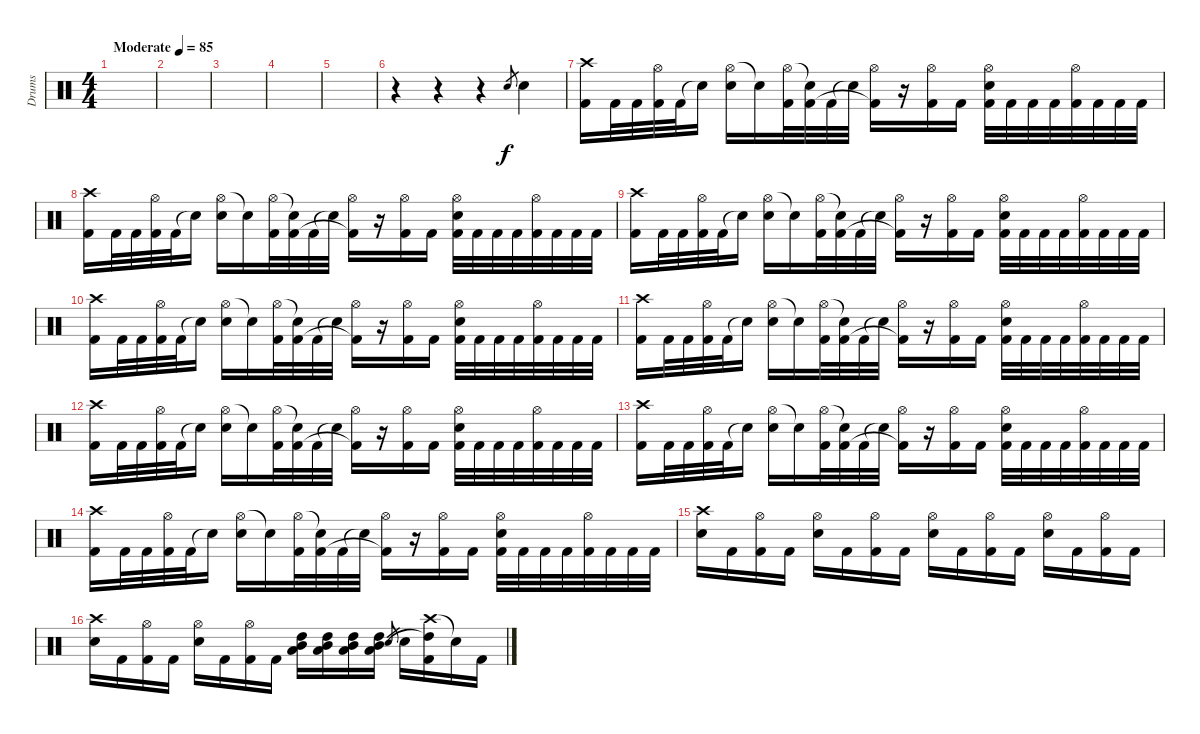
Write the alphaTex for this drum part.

\track ("Drums" "Drums") {instrument percussion}
\staff {score}
\articulation defaults
\ts (4 4)
\tempo (85 "Moderate")
\clef neutral
\ks c
|
|
|
|
|
r.4 r.4 r.4 "Electric Snare (hit)".8{gr} "Electric Snare (hit)".4 |
("Crash high (hit)" "Kick (hit) 2").16 "Kick (hit) 2".32 "Kick (hit) 2".32 ("Hi-Hat (open)" "Kick (hit) 2").32 "Kick (hit) 2".32 "Snare (hit)"{t}.16 ("Hi-Hat (open)" "Electric Snare (hit)").16 "Snare (hit)"{t}.16 ("Hi-Hat (open)" "Kick (hit) 2").32 ("Snare (hit)"{t} "Kick (hit) 2").32 "Kick (hit) 2".32 "Snare (hit)"{t}.32 ("Hi-Hat (open)" "Kick (hit) 2"{t}).16 r.16 ("Hi-Hat (open)" "Kick (hit) 2").16 "Kick (hit) 2".16 ("Hi-Hat (open)" "Electric Snare (hit)" "Kick (hit) 2").32 "Kick (hit) 2".32 "Kick (hit) 2".32 "Kick (hit) 2".32 ("Hi-Hat (open)" "Kick (hit) 2").32 "Kick (hit) 2".32 "Kick (hit) 2".32 "Kick (hit) 2".32 |
("Crash high (hit)" "Kick (hit) 2").16 "Kick (hit) 2".32 "Kick (hit) 2".32 ("Hi-Hat (open)" "Kick (hit) 2").32 "Kick (hit) 2".32 "Snare (hit)"{t}.16 ("Hi-Hat (open)" "Electric Snare (hit)").16 "Snare (hit)"{t}.16 ("Hi-Hat (open)" "Kick (hit) 2").32 ("Snare (hit)"{t} "Kick (hit) 2").32 "Kick (hit) 2".32 "Snare (hit)"{t}.32 ("Hi-Hat (open)" "Kick (hit) 2"{t}).16 r.16 ("Hi-Hat (open)" "Kick (hit) 2").16 "Kick (hit) 2".16 ("Hi-Hat (open)" "Electric Snare (hit)" "Kick (hit) 2").32 "Kick (hit) 2".32 "Kick (hit) 2".32 "Kick (hit) 2".32 ("Hi-Hat (open)" "Kick (hit) 2").32 "Kick (hit) 2".32 "Kick (hit) 2".32 "Kick (hit) 2".32 |
("Crash high (hit)" "Kick (hit) 2").16 "Kick (hit) 2".32 "Kick (hit) 2".32 ("Hi-Hat (open)" "Kick (hit) 2").32 "Kick (hit) 2".32 "Snare (hit)"{t}.16 ("Hi-Hat (open)" "Electric Snare (hit)").16 "Snare (hit)"{t}.16 ("Hi-Hat (open)" "Kick (hit) 2").32 ("Snare (hit)"{t} "Kick (hit) 2").32 "Kick (hit) 2".32 "Snare (hit)"{t}.32 ("Hi-Hat (open)" "Kick (hit) 2"{t}).16 r.16 ("Hi-Hat (open)" "Kick (hit) 2").16 "Kick (hit) 2".16 ("Hi-Hat (open)" "Electric Snare (hit)" "Kick (hit) 2").32 "Kick (hit) 2".32 "Kick (hit) 2".32 "Kick (hit) 2".32 ("Hi-Hat (open)" "Kick (hit) 2").32 "Kick (hit) 2".32 "Kick (hit) 2".32 "Kick (hit) 2".32 |
("Crash high (hit)" "Kick (hit) 2").16 "Kick (hit) 2".32 "Kick (hit) 2".32 ("Hi-Hat (open)" "Kick (hit) 2").32 "Kick (hit) 2".32 "Snare (hit)"{t}.16 ("Hi-Hat (open)" "Electric Snare (hit)").16 "Snare (hit)"{t}.16 ("Hi-Hat (open)" "Kick (hit) 2").32 ("Snare (hit)"{t} "Kick (hit) 2").32 "Kick (hit) 2".32 "Snare (hit)"{t}.32 ("Hi-Hat (open)" "Kick (hit) 2"{t}).16 r.16 ("Hi-Hat (open)" "Kick (hit) 2").16 "Kick (hit) 2".16 ("Hi-Hat (open)" "Electric Snare (hit)" "Kick (hit) 2").32 "Kick (hit) 2".32 "Kick (hit) 2".32 "Kick (hit) 2".32 ("Hi-Hat (open)" "Kick (hit) 2").32 "Kick (hit) 2".32 "Kick (hit) 2".32 "Kick (hit) 2".32 |
("Crash high (hit)" "Kick (hit) 2").16 "Kick (hit) 2".32 "Kick (hit) 2".32 ("Hi-Hat (open)" "Kick (hit) 2").32 "Kick (hit) 2".32 "Snare (hit)"{t}.16 ("Hi-Hat (open)" "Electric Snare (hit)").16 "Snare (hit)"{t}.16 ("Hi-Hat (open)" "Kick (hit) 2").32 ("Snare (hit)"{t} "Kick (hit) 2").32 "Kick (hit) 2".32 "Snare (hit)"{t}.32 ("Hi-Hat (open)" "Kick (hit) 2"{t}).16 r.16 ("Hi-Hat (open)" "Kick (hit) 2").16 "Kick (hit) 2".16 ("Hi-Hat (open)" "Electric Snare (hit)" "Kick (hit) 2").32 "Kick (hit) 2".32 "Kick (hit) 2".32 "Kick (hit) 2".32 ("Hi-Hat (open)" "Kick (hit) 2").32 "Kick (hit) 2".32 "Kick (hit) 2".32 "Kick (hit) 2".32 |
("Crash high (hit)" "Kick (hit) 2").16 "Kick (hit) 2".32 "Kick (hit) 2".32 ("Hi-Hat (open)" "Kick (hit) 2").32 "Kick (hit) 2".32 "Snare (hit)"{t}.16 ("Hi-Hat (open)" "Electric Snare (hit)").16 "Snare (hit)"{t}.16 ("Hi-Hat (open)" "Kick (hit) 2").32 ("Snare (hit)"{t} "Kick (hit) 2").32 "Kick (hit) 2".32 "Snare (hit)"{t}.32 ("Hi-Hat (open)" "Kick (hit) 2"{t}).16 r.16 ("Hi-Hat (open)" "Kick (hit) 2").16 "Kick (hit) 2".16 ("Hi-Hat (open)" "Electric Snare (hit)" "Kick (hit) 2").32 "Kick (hit) 2".32 "Kick (hit) 2".32 "Kick (hit) 2".32 ("Hi-Hat (open)" "Kick (hit) 2").32 "Kick (hit) 2".32 "Kick (hit) 2".32 "Kick (hit) 2".32 |
("Crash high (hit)" "Kick (hit) 2").16 "Kick (hit) 2".32 "Kick (hit) 2".32 ("Hi-Hat (open)" "Kick (hit) 2").32 "Kick (hit) 2".32 "Snare (hit)"{t}.16 ("Hi-Hat (open)" "Electric Snare (hit)").16 "Snare (hit)"{t}.16 ("Hi-Hat (open)" "Kick (hit) 2").32 ("Snare (hit)"{t} "Kick (hit) 2").32 "Kick (hit) 2".32 "Snare (hit)"{t}.32 ("Hi-Hat (open)" "Kick (hit) 2"{t}).16 r.16 ("Hi-Hat (open)" "Kick (hit) 2").16 "Kick (hit) 2".16 ("Hi-Hat (open)" "Electric Snare (hit)" "Kick (hit) 2").32 "Kick (hit) 2".32 "Kick (hit) 2".32 "Kick (hit) 2".32 ("Hi-Hat (open)" "Kick (hit) 2").32 "Kick (hit) 2".32 "Kick (hit) 2".32 "Kick (hit) 2".32 |
("Crash high (hit)" "Kick (hit) 2").16 "Kick (hit) 2".32 "Kick (hit) 2".32 ("Hi-Hat (open)" "Kick (hit) 2").32 "Kick (hit) 2".32 "Snare (hit)"{t}.16 ("Hi-Hat (open)" "Electric Snare (hit)").16 "Snare (hit)"{t}.16 ("Hi-Hat (open)" "Kick (hit) 2").32 ("Snare (hit)"{t} "Kick (hit) 2").32 "Kick (hit) 2".32 "Snare (hit)"{t}.32 ("Hi-Hat (open)" "Kick (hit) 2"{t}).16 r.16 ("Hi-Hat (open)" "Kick (hit) 2").16 "Kick (hit) 2".16 ("Hi-Hat (open)" "Electric Snare (hit)" "Kick (hit) 2").32 "Kick (hit) 2".32 "Kick (hit) 2".32 "Kick (hit) 2".32 ("Hi-Hat (open)" "Kick (hit) 2").32 "Kick (hit) 2".32 "Kick (hit) 2".32 "Kick (hit) 2".32 |
("Crash high (hit)" "Electric Snare (hit)").16 "Kick (hit) 2".16 ("Hi-Hat (open)" "Kick (hit) 2").16 "Kick (hit) 2".16 ("Hi-Hat (open)" "Electric Snare (hit)").16 "Kick (hit) 2".16 ("Hi-Hat (open)" "Kick (hit) 2").16 "Kick (hit) 2".16 ("Hi-Hat (open)" "Electric Snare (hit)").16 "Kick (hit) 2".16 ("Hi-Hat (open)" "Kick (hit) 2").16 "Kick (hit) 2".16 ("Hi-Hat (open)" "Electric Snare (hit)").16 "Kick (hit) 2".16 ("Hi-Hat (open)" "Kick (hit) 2").16 "Kick (hit) 2".16 |
("Crash high (hit)" "Electric Snare (hit)").16 "Kick (hit) 2".16 ("Hi-Hat (open)" "Kick (hit) 2").16 "Kick (hit) 2".16 ("Hi-Hat (open)" "Electric Snare (hit)").16 "Kick (hit) 2".16 ("Hi-Hat (open)" "Kick (hit) 2").16 "Kick (hit) 2".16 ("Mid Tom (hit)" "Low Tom (hit)" "High Tom (hit)").16 ("Mid Tom (hit)" "Low Tom (hit)" "High Tom (hit)").16 ("Mid Tom (hit)" "Low Tom (hit)" "High Tom (hit)").16 ("Mid Tom (hit)" "Low Tom (hit)" "High Tom (hit)").16 "Electric Snare (hit)".8{gr} "Electric Snare (hit)".16 ("Crash high (hit)" "High Tom (hit)"{t} "Kick (hit) 2").16 "Snare (hit)"{t}.16 "Kick (hit) 2".16
